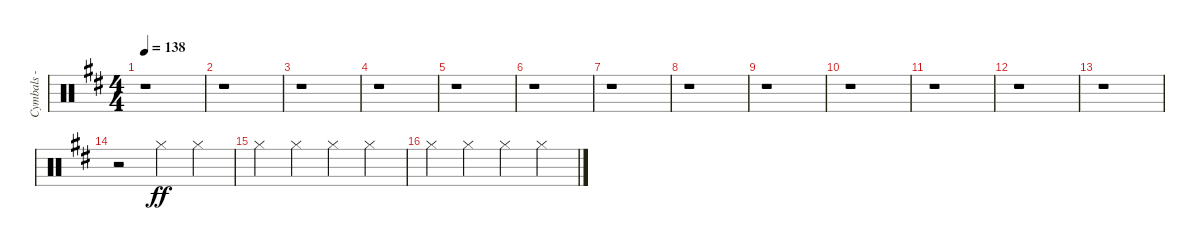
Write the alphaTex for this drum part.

\track ("Cymbals - hi-hat" "Cymbals - ") {instrument percussion}
\staff {score}
\articulation defaults
\ts (4 4)
\tempo 138
\clef neutral
\ks d
r.1{dy ff} |
r.1 |
r.1 |
r.1 |
r.1 |
r.1 |
r.1 |
r.1 |
r.1 |
r.1 |
r.1 |
r.1 |
r.1 |
r.2 "Hi-Hat (closed)".4 "Hi-Hat (closed)".4 |
"Hi-Hat (closed)".4 "Hi-Hat (closed)".4 "Hi-Hat (closed)".4 "Hi-Hat (closed)".4 |
"Hi-Hat (closed)".4 "Hi-Hat (closed)".4 "Hi-Hat (closed)".4 "Hi-Hat (closed)".4
